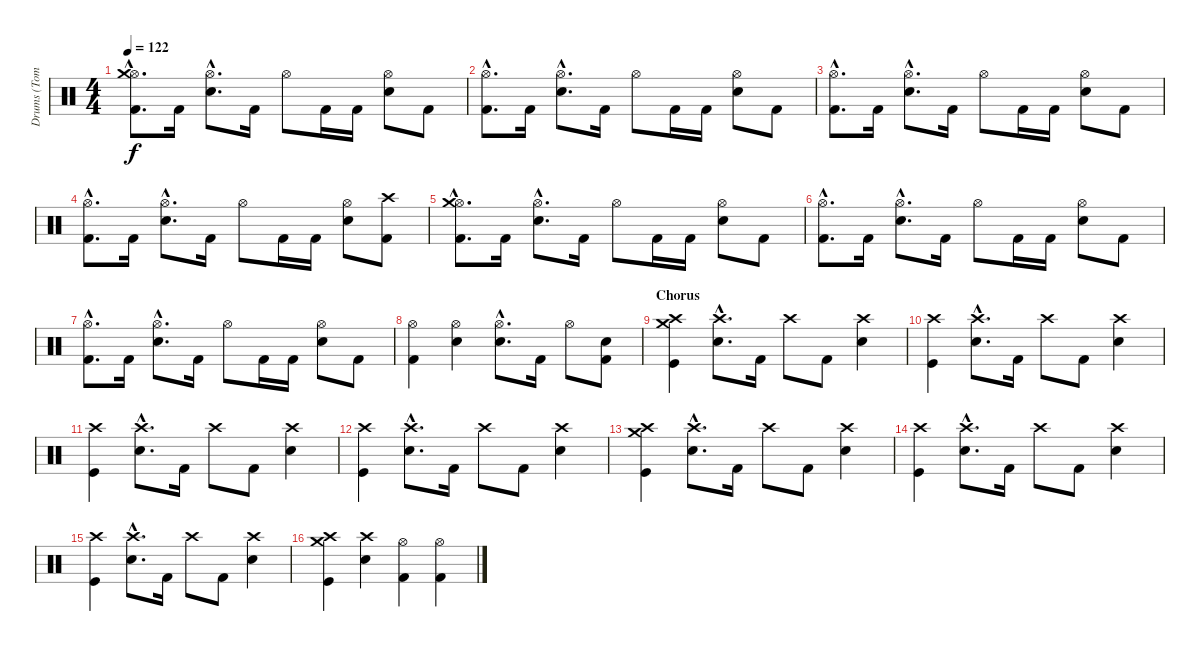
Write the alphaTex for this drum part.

\track ("Drums (Tommy Decker)" "Drums (Tom") {instrument percussion}
\staff {score}
\articulation defaults
\ts (4 4)
\tempo 122
\clef neutral
\ks c
("Hi-Hat (open)"{hac} "Crash medium (hit)"{hac} "Kick (hit) 2"{hac}).8{d dy f} "Kick (hit) 2".16 ("Hi-Hat (open)"{hac} "Snare (hit) 2"{hac}).8{d} "Kick (hit) 2".16 "Hi-Hat (open)".8 "Kick (hit) 2".16 "Kick (hit) 2".16 ("Hi-Hat (open)" "Snare (hit) 2").8 "Kick (hit) 2".8 |
("Hi-Hat (open)"{hac} "Kick (hit) 2"{hac}).8{d} "Kick (hit) 2".16 ("Hi-Hat (open)"{hac} "Snare (hit) 2"{hac}).8{d} "Kick (hit) 2".16 "Hi-Hat (open)".8 "Kick (hit) 2".16 "Kick (hit) 2".16 ("Hi-Hat (open)" "Snare (hit) 2").8 "Kick (hit) 2".8 |
("Hi-Hat (open)"{hac} "Kick (hit) 2"{hac}).8{d} "Kick (hit) 2".16 ("Hi-Hat (open)"{hac} "Snare (hit) 2"{hac}).8{d} "Kick (hit) 2".16 "Hi-Hat (open)".8 "Kick (hit) 2".16 "Kick (hit) 2".16 ("Hi-Hat (open)" "Snare (hit) 2").8 "Kick (hit) 2".8 |
("Hi-Hat (open)"{hac} "Kick (hit) 2"{hac}).8{d} "Kick (hit) 2".16 ("Hi-Hat (open)"{hac} "Snare (hit) 2"{hac}).8{d} "Kick (hit) 2".16 "Hi-Hat (open)".8 "Kick (hit) 2".16 "Kick (hit) 2".16 ("Hi-Hat (open)" "Snare (hit) 2").8 ("Crash high (hit)" "Kick (hit) 2").8 |
("Hi-Hat (open)"{hac} "Crash medium (hit)"{hac} "Kick (hit) 2"{hac}).8{d} "Kick (hit) 2".16 ("Hi-Hat (open)"{hac} "Snare (hit) 2"{hac}).8{d} "Kick (hit) 2".16 "Hi-Hat (open)".8 "Kick (hit) 2".16 "Kick (hit) 2".16 ("Hi-Hat (open)" "Snare (hit) 2").8 "Kick (hit) 2".8 |
("Hi-Hat (open)"{hac} "Kick (hit) 2"{hac}).8{d} "Kick (hit) 2".16 ("Hi-Hat (open)"{hac} "Snare (hit) 2"{hac}).8{d} "Kick (hit) 2".16 "Hi-Hat (open)".8 "Kick (hit) 2".16 "Kick (hit) 2".16 ("Hi-Hat (open)" "Snare (hit) 2").8 "Kick (hit) 2".8 |
("Hi-Hat (open)"{hac} "Kick (hit) 2"{hac}).8{d} "Kick (hit) 2".16 ("Hi-Hat (open)"{hac} "Snare (hit) 2"{hac}).8{d} "Kick (hit) 2".16 "Hi-Hat (open)".8 "Kick (hit) 2".16 "Kick (hit) 2".16 ("Hi-Hat (open)" "Snare (hit) 2").8 "Kick (hit) 2".8 |
("Hi-Hat (open)" "Kick (hit) 2").4 ("Hi-Hat (open)" "Snare (hit) 2").4 ("Hi-Hat (open)"{hac} "Snare (hit) 2"{hac}).8{d} "Kick (hit) 2".16 "Hi-Hat (open)".8 ("Snare (hit) 2" "Kick (hit) 2").8 |
\section ("" "Chorus")
("Crash high (hit)" "Crash medium (hit)" "Kick (hit)").4 ("Crash high (hit)"{hac} "Snare (hit) 2"{hac}).8{d} "Kick (hit) 2".16 "Crash high (hit)".8 "Kick (hit) 2".8 ("Crash high (hit)" "Snare (hit) 2").4 |
("Crash high (hit)" "Kick (hit)").4 ("Crash high (hit)"{hac} "Snare (hit) 2"{hac}).8{d} "Kick (hit) 2".16 "Crash high (hit)".8 "Kick (hit) 2".8 ("Crash high (hit)" "Snare (hit) 2").4 |
("Crash high (hit)" "Kick (hit)").4 ("Crash high (hit)"{hac} "Snare (hit) 2"{hac}).8{d} "Kick (hit) 2".16 "Crash high (hit)".8 "Kick (hit) 2".8 ("Crash high (hit)" "Snare (hit) 2").4 |
("Crash high (hit)" "Kick (hit)").4 ("Crash high (hit)"{hac} "Snare (hit) 2"{hac}).8{d} "Kick (hit) 2".16 "Crash high (hit)".8 "Kick (hit) 2".8 ("Crash high (hit)" "Snare (hit) 2").4 |
("Crash high (hit)" "Crash medium (hit)" "Kick (hit)").4 ("Crash high (hit)"{hac} "Snare (hit) 2"{hac}).8{d} "Kick (hit) 2".16 "Crash high (hit)".8 "Kick (hit) 2".8 ("Crash high (hit)" "Snare (hit) 2").4 |
("Crash high (hit)" "Kick (hit)").4 ("Crash high (hit)"{hac} "Snare (hit) 2"{hac}).8{d} "Kick (hit) 2".16 "Crash high (hit)".8 "Kick (hit) 2".8 ("Crash high (hit)" "Snare (hit) 2").4 |
("Crash high (hit)" "Kick (hit)").4 ("Crash high (hit)"{hac} "Snare (hit) 2"{hac}).8{d} "Kick (hit) 2".16 "Crash high (hit)".8 "Kick (hit) 2".8 ("Crash high (hit)" "Snare (hit) 2").4 |
("Crash high (hit)" "Crash medium (hit)" "Kick (hit)").4 ("Crash high (hit)" "Snare (hit) 2").4 ("Hi-Hat (open)" "Kick (hit) 2").4 ("Hi-Hat (open)" "Kick (hit) 2").4
